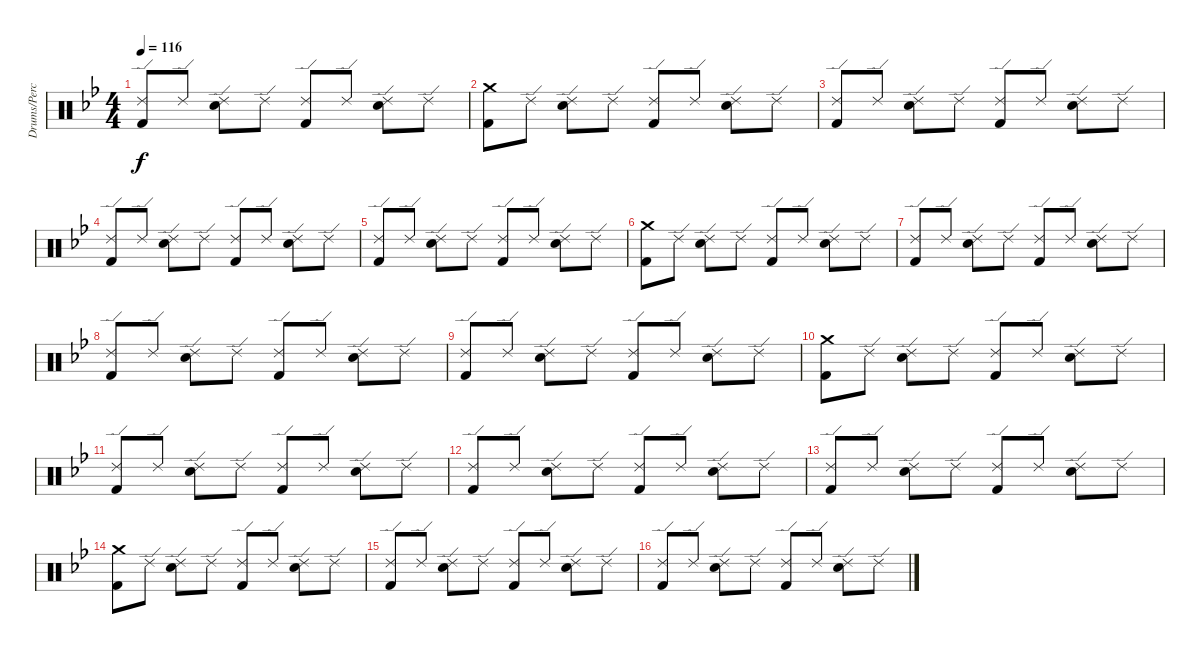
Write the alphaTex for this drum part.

\track ("Drums/Percussion (Bengerg)" "Drums/Perc") {instrument percussion}
\staff {score}
\articulation defaults
\ts (4 4)
\tempo 116
\clef neutral
\ks bb
("Ride (edge) 2" "Kick (hit) 2").8{dy f} "Ride (edge) 2".8 ("Ride (edge) 2" "Electric Snare (hit)").8 "Ride (edge) 2".8 ("Ride (edge) 2" "Kick (hit) 2").8 "Ride (edge) 2".8 ("Ride (edge) 2" "Electric Snare (hit)").8 "Ride (edge) 2".8 |
("Crash medium (hit)" "Kick (hit) 2").8 "Ride (edge) 2".8 ("Ride (edge) 2" "Electric Snare (hit)").8 "Ride (edge) 2".8 ("Ride (edge) 2" "Kick (hit) 2").8 "Ride (edge) 2".8 ("Ride (edge) 2" "Electric Snare (hit)").8 "Ride (edge) 2".8 |
("Ride (edge) 2" "Kick (hit) 2").8 "Ride (edge) 2".8 ("Ride (edge) 2" "Electric Snare (hit)").8 "Ride (edge) 2".8 ("Ride (edge) 2" "Kick (hit) 2").8 "Ride (edge) 2".8 ("Ride (edge) 2" "Electric Snare (hit)").8 "Ride (edge) 2".8 |
("Ride (edge) 2" "Kick (hit) 2").8 "Ride (edge) 2".8 ("Ride (edge) 2" "Electric Snare (hit)").8 "Ride (edge) 2".8 ("Ride (edge) 2" "Kick (hit) 2").8 "Ride (edge) 2".8 ("Ride (edge) 2" "Electric Snare (hit)").8 "Ride (edge) 2".8 |
("Ride (edge) 2" "Kick (hit) 2").8 "Ride (edge) 2".8 ("Ride (edge) 2" "Electric Snare (hit)").8 "Ride (edge) 2".8 ("Ride (edge) 2" "Kick (hit) 2").8 "Ride (edge) 2".8 ("Ride (edge) 2" "Electric Snare (hit)").8 "Ride (edge) 2".8 |
("Crash medium (hit)" "Kick (hit) 2").8 "Ride (edge) 2".8 ("Ride (edge) 2" "Electric Snare (hit)").8 "Ride (edge) 2".8 ("Ride (edge) 2" "Kick (hit) 2").8 "Ride (edge) 2".8 ("Ride (edge) 2" "Electric Snare (hit)").8 "Ride (edge) 2".8 |
("Ride (edge) 2" "Kick (hit) 2").8 "Ride (edge) 2".8 ("Ride (edge) 2" "Electric Snare (hit)").8 "Ride (edge) 2".8 ("Ride (edge) 2" "Kick (hit) 2").8 "Ride (edge) 2".8 ("Ride (edge) 2" "Electric Snare (hit)").8 "Ride (edge) 2".8 |
("Ride (edge) 2" "Kick (hit) 2").8 "Ride (edge) 2".8 ("Ride (edge) 2" "Electric Snare (hit)").8 "Ride (edge) 2".8 ("Ride (edge) 2" "Kick (hit) 2").8 "Ride (edge) 2".8 ("Ride (edge) 2" "Electric Snare (hit)").8 "Ride (edge) 2".8 |
("Ride (edge) 2" "Kick (hit) 2").8 "Ride (edge) 2".8 ("Ride (edge) 2" "Electric Snare (hit)").8 "Ride (edge) 2".8 ("Ride (edge) 2" "Kick (hit) 2").8 "Ride (edge) 2".8 ("Ride (edge) 2" "Electric Snare (hit)").8 "Ride (edge) 2".8 |
("Crash medium (hit)" "Kick (hit) 2").8 "Ride (edge) 2".8 ("Ride (edge) 2" "Electric Snare (hit)").8 "Ride (edge) 2".8 ("Ride (edge) 2" "Kick (hit) 2").8 "Ride (edge) 2".8 ("Ride (edge) 2" "Electric Snare (hit)").8 "Ride (edge) 2".8 |
("Ride (edge) 2" "Kick (hit) 2").8 "Ride (edge) 2".8 ("Ride (edge) 2" "Electric Snare (hit)").8 "Ride (edge) 2".8 ("Ride (edge) 2" "Kick (hit) 2").8 "Ride (edge) 2".8 ("Ride (edge) 2" "Electric Snare (hit)").8 "Ride (edge) 2".8 |
("Ride (edge) 2" "Kick (hit) 2").8 "Ride (edge) 2".8 ("Ride (edge) 2" "Electric Snare (hit)").8 "Ride (edge) 2".8 ("Ride (edge) 2" "Kick (hit) 2").8 "Ride (edge) 2".8 ("Ride (edge) 2" "Electric Snare (hit)").8 "Ride (edge) 2".8 |
("Ride (edge) 2" "Kick (hit) 2").8 "Ride (edge) 2".8 ("Ride (edge) 2" "Electric Snare (hit)").8 "Ride (edge) 2".8 ("Ride (edge) 2" "Kick (hit) 2").8 "Ride (edge) 2".8 ("Ride (edge) 2" "Electric Snare (hit)").8 "Ride (edge) 2".8 |
("Crash medium (hit)" "Kick (hit) 2").8 "Ride (edge) 2".8 ("Ride (edge) 2" "Electric Snare (hit)").8 "Ride (edge) 2".8 ("Ride (edge) 2" "Kick (hit) 2").8 "Ride (edge) 2".8 ("Ride (edge) 2" "Electric Snare (hit)").8 "Ride (edge) 2".8 |
("Ride (edge) 2" "Kick (hit) 2").8 "Ride (edge) 2".8 ("Ride (edge) 2" "Electric Snare (hit)").8 "Ride (edge) 2".8 ("Ride (edge) 2" "Kick (hit) 2").8 "Ride (edge) 2".8 ("Ride (edge) 2" "Electric Snare (hit)").8 "Ride (edge) 2".8 |
("Ride (edge) 2" "Kick (hit) 2").8 "Ride (edge) 2".8 ("Ride (edge) 2" "Electric Snare (hit)").8 "Ride (edge) 2".8 ("Ride (edge) 2" "Kick (hit) 2").8 "Ride (edge) 2".8 ("Ride (edge) 2" "Electric Snare (hit)").8 "Ride (edge) 2".8
